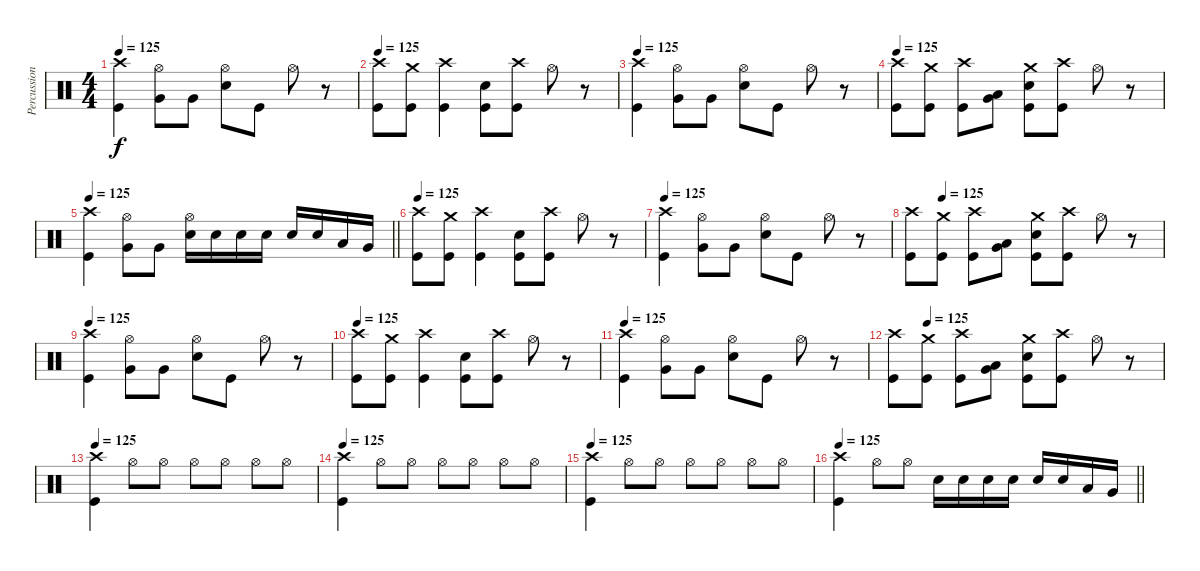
\track ("Percussions" "Percussion") {instrument percussion}
\staff {score}
\articulation defaults
\ts (4 4)
\tempo 125
\clef neutral
\ks c
("Crash high (hit)" "Kick (hit)").4{dy f} ("Hi-Hat (open)" "Very Low Tom (hit)").8 "Very Low Tom (hit)".8 ("Hi-Hat (open)" "Electric Snare (hit)").8 "Kick (hit)".8 "Hi-Hat (open)".8 r.8 |
\tempo 125
("Crash high (hit)" "Kick (hit)").8 ("Crash medium (hit)" "Kick (hit)").8 ("Crash high (hit)" "Kick (hit)").4 ("Electric Snare (hit)" "Kick (hit)").8 ("Crash high (hit)" "Kick (hit)").8 "Hi-Hat (open)".8 r.8 |
\tempo 125
("Crash high (hit)" "Kick (hit)").4 ("Hi-Hat (open)" "Very Low Tom (hit)").8 "Very Low Tom (hit)".8 ("Hi-Hat (open)" "Electric Snare (hit)").8 "Kick (hit)".8 "Hi-Hat (open)".8 r.8 |
\tempo 125
("Crash high (hit)" "Kick (hit)").8 ("Crash medium (hit)" "Kick (hit)").8 ("Crash high (hit)" "Kick (hit)").8 ("Very Low Tom (hit)" "Low Floor Tom (hit)").8 ("Crash medium (hit)" "Electric Snare (hit)" "Kick (hit)").8 ("Crash high (hit)" "Kick (hit)").8 "Hi-Hat (open)".8 r.8 |
\tempo 125
\barLineRight lightlight
("Crash high (hit)" "Kick (hit)").4 ("Hi-Hat (open)" "Very Low Tom (hit)").8 "Very Low Tom (hit)".8 ("Hi-Hat (open)" "Electric Snare (hit)").16 "Electric Snare (hit)".16 "Electric Snare (hit)".16 "Electric Snare (hit)".16 "Electric Snare (hit)".16 "Electric Snare (hit)".16 "Low Tom (hit)".16 "Very Low Tom (hit)".16 |
\section ("" "")
\tempo 125
("Crash high (hit)" "Kick (hit)").8 ("Crash medium (hit)" "Kick (hit)").8 ("Crash high (hit)" "Kick (hit)").4 ("Electric Snare (hit)" "Kick (hit)").8 ("Crash high (hit)" "Kick (hit)").8 "Hi-Hat (open)".8 r.8 |
\tempo 125
("Crash high (hit)" "Kick (hit)").4 ("Hi-Hat (open)" "Very Low Tom (hit)").8 "Very Low Tom (hit)".8 ("Hi-Hat (open)" "Electric Snare (hit)").8 "Kick (hit)".8 "Hi-Hat (open)".8 r.8 |
\tempo (125 0.125)
("Crash high (hit)" "Kick (hit)").8 ("Crash medium (hit)" "Kick (hit)").8 ("Crash high (hit)" "Kick (hit)").8 ("Very Low Tom (hit)" "Low Floor Tom (hit)").8 ("Crash medium (hit)" "Electric Snare (hit)" "Kick (hit)").8 ("Crash high (hit)" "Kick (hit)").8 "Hi-Hat (open)".8 r.8 |
\tempo 125
("Crash high (hit)" "Kick (hit)").4 ("Hi-Hat (open)" "Very Low Tom (hit)").8 "Very Low Tom (hit)".8 ("Hi-Hat (open)" "Electric Snare (hit)").8 "Kick (hit)".8 "Hi-Hat (open)".8 r.8 |
\tempo 125
("Crash high (hit)" "Kick (hit)").8 ("Crash medium (hit)" "Kick (hit)").8 ("Crash high (hit)" "Kick (hit)").4 ("Electric Snare (hit)" "Kick (hit)").8 ("Crash high (hit)" "Kick (hit)").8 "Hi-Hat (open)".8 r.8 |
\tempo 125
("Crash high (hit)" "Kick (hit)").4 ("Hi-Hat (open)" "Very Low Tom (hit)").8 "Very Low Tom (hit)".8 ("Hi-Hat (open)" "Electric Snare (hit)").8 "Kick (hit)".8 "Hi-Hat (open)".8 r.8 |
\tempo (125 0.125)
("Crash high (hit)" "Kick (hit)").8 ("Crash medium (hit)" "Kick (hit)").8 ("Crash high (hit)" "Kick (hit)").8 ("Very Low Tom (hit)" "Low Floor Tom (hit)").8 ("Crash medium (hit)" "Electric Snare (hit)" "Kick (hit)").8 ("Crash high (hit)" "Kick (hit)").8 "Hi-Hat (open)".8 r.8 |
\tempo 125
("Crash high (hit)" "Kick (hit)").4 "Hi-Hat (open)".8 "Hi-Hat (open)".8 "Hi-Hat (open)".8 "Hi-Hat (open)".8 "Hi-Hat (open)".8 "Hi-Hat (open)".8 |
\tempo 125
("Crash high (hit)" "Kick (hit)").4 "Hi-Hat (open)".8 "Hi-Hat (open)".8 "Hi-Hat (open)".8 "Hi-Hat (open)".8 "Hi-Hat (open)".8 "Hi-Hat (open)".8 |
\tempo 125
("Crash high (hit)" "Kick (hit)").4 "Hi-Hat (open)".8 "Hi-Hat (open)".8 "Hi-Hat (open)".8 "Hi-Hat (open)".8 "Hi-Hat (open)".8 "Hi-Hat (open)".8 |
\tempo 125
\barLineRight lightlight
("Crash high (hit)" "Kick (hit)").4 "Hi-Hat (open)".8 "Hi-Hat (open)".8 "Electric Snare (hit)".16 "Electric Snare (hit)".16 "Electric Snare (hit)".16 "Electric Snare (hit)".16 "Electric Snare (hit)".16 "Electric Snare (hit)".16 "Low Tom (hit)".16 "Very Low Tom (hit)".16
